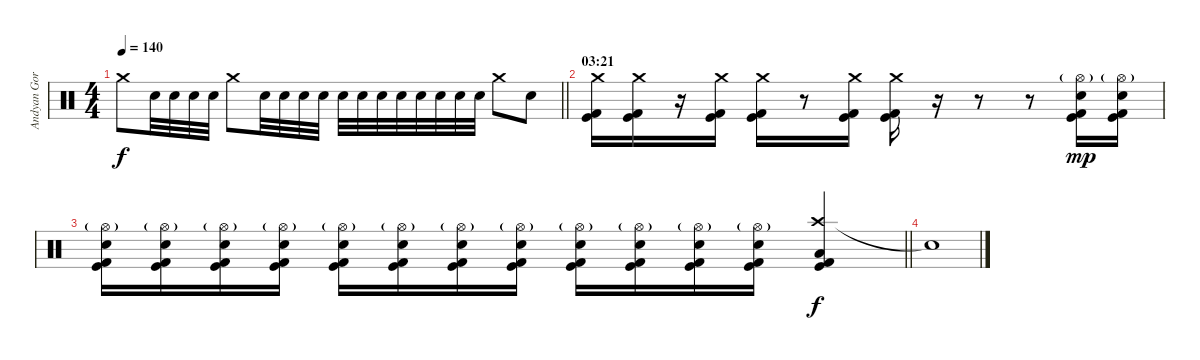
\track ("Andyan Gorust" "Andyan Gor") {instrument percussion}
\staff {score}
\articulation defaults
\ts (4 4)
\tempo 140
\clef neutral
\barLineRight lightlight
\ks c "Crash medium (hit)".8{dy f} "Electric Snare (hit)".32 "Electric Snare (hit)".32 "Electric Snare (hit)".32 "Electric Snare (hit)".32 "Crash medium (hit)".8 "Electric Snare (hit)".32 "Electric Snare (hit)".32 "Electric Snare (hit)".32 "Electric Snare (hit)".32 "Electric Snare (hit)".32 "Electric Snare (hit)".32 "Electric Snare (hit)".32 "Electric Snare (hit)".32 "Electric Snare (hit)".32 "Electric Snare (hit)".32 "Electric Snare (hit)".32 "Electric Snare (hit)".32 "Crash medium (hit)".8 "Electric Snare (hit)".8
|
\section ("" "03:21")
("Crash medium (hit)" "Kick (hit)" "Kick (hit) 2").16 ("Crash medium (hit)" "Kick (hit)" "Kick (hit) 2").16 r.16 ("Crash medium (hit)" "Kick (hit)" "Kick (hit) 2").16 ("Crash medium (hit)" "Kick (hit)" "Kick (hit) 2").16 r.8 ("Crash medium (hit)" "Kick (hit)" "Kick (hit) 2").16 ("Crash medium (hit)" "Kick (hit)" "Kick (hit) 2").16 r.16 r.8 r.8 ("Hi-Hat (open)"{g} "Electric Snare (hit)" "Kick (hit)" "Kick (hit) 2").16{dy mp} ("Hi-Hat (open)"{g} "Electric Snare (hit)" "Kick (hit)" "Kick (hit) 2").16 |
\barLineRight lightlight
("Hi-Hat (open)"{g} "Electric Snare (hit)" "Kick (hit)" "Kick (hit) 2").16 ("Hi-Hat (open)"{g} "Electric Snare (hit)" "Kick (hit)" "Kick (hit) 2").16 ("Hi-Hat (open)"{g} "Electric Snare (hit)" "Kick (hit)" "Kick (hit) 2").16 ("Hi-Hat (open)"{g} "Electric Snare (hit)" "Kick (hit)" "Kick (hit) 2").16 ("Hi-Hat (open)"{g} "Electric Snare (hit)" "Kick (hit)" "Kick (hit) 2").16 ("Hi-Hat (open)"{g} "Electric Snare (hit)" "Kick (hit)" "Kick (hit) 2").16 ("Hi-Hat (open)"{g} "Electric Snare (hit)" "Kick (hit)" "Kick (hit) 2").16 ("Hi-Hat (open)"{g} "Electric Snare (hit)" "Kick (hit)" "Kick (hit) 2").16 ("Hi-Hat (open)"{g} "Electric Snare (hit)" "Kick (hit)" "Kick (hit) 2").16 ("Hi-Hat (open)"{g} "Electric Snare (hit)" "Kick (hit)" "Kick (hit) 2").16 ("Hi-Hat (open)"{g} "Electric Snare (hit)" "Kick (hit)" "Kick (hit) 2").16 ("Hi-Hat (open)"{g} "Electric Snare (hit)" "Kick (hit)" "Kick (hit) 2").16 ("Crash high (hit)" "Low Tom (hit)" "Kick (hit)" "Kick (hit) 2").4{dy f} |
"Snare (hit)"{t}.1
